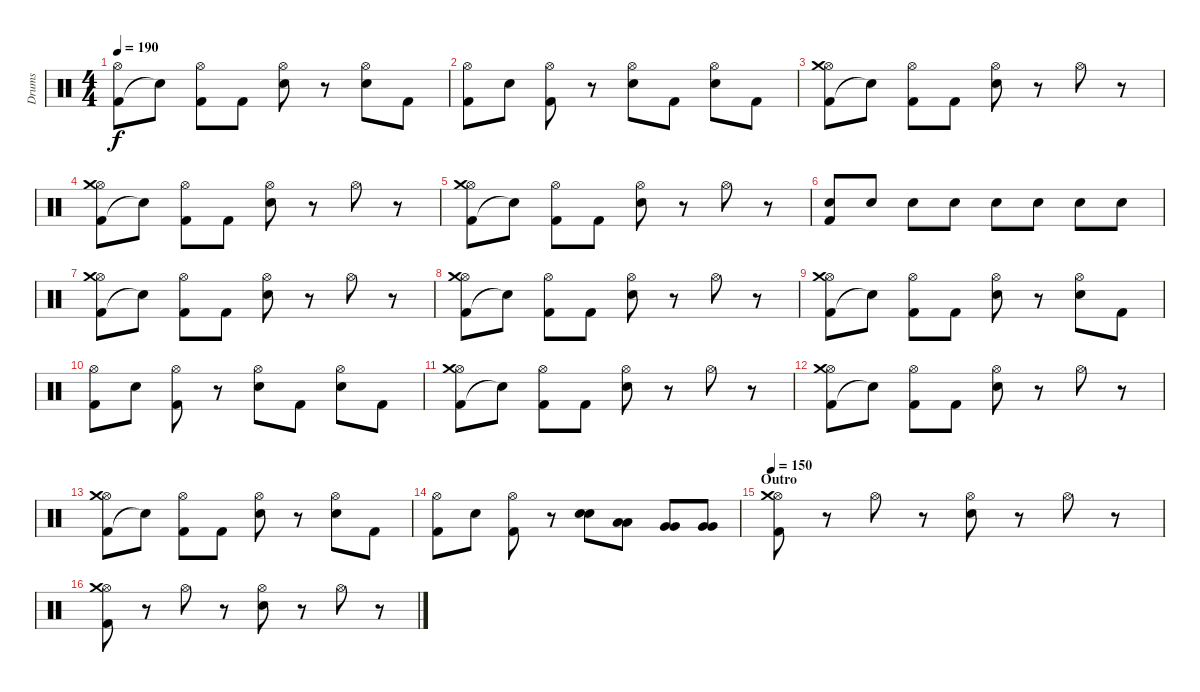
\track ("Drums" "Drums") {instrument percussion}
\staff {score}
\articulation defaults
\ts (4 4)
\tempo 190
\clef neutral
\ks c
("Kick (hit) 2" "Hi-Hat (open)").8{dy f} "Snare (hit)"{t}.8 ("Kick (hit) 2" "Hi-Hat (open)").8 "Kick (hit) 2".8 ("Electric Snare (hit)" "Hi-Hat (open)").8 r.8 ("Electric Snare (hit)" "Hi-Hat (open)").8 "Kick (hit) 2".8 |
("Kick (hit) 2" "Hi-Hat (open)").8 "Electric Snare (hit)".8 ("Kick (hit) 2" "Hi-Hat (open)").8 r.8 ("Electric Snare (hit)" "Hi-Hat (open)").8 "Kick (hit) 2".8 ("Electric Snare (hit)" "Hi-Hat (open)").8 "Kick (hit) 2".8 |
("Kick (hit) 2" "Hi-Hat (open)" "Crash medium (hit)").8 "Snare (hit)"{t}.8 ("Kick (hit) 2" "Hi-Hat (open)").8 "Kick (hit) 2".8 ("Electric Snare (hit)" "Hi-Hat (open)").8 r.8 "Hi-Hat (open)".8 r.8 |
("Kick (hit) 2" "Hi-Hat (open)" "Crash medium (hit)").8 "Snare (hit)"{t}.8 ("Kick (hit) 2" "Hi-Hat (open)").8 "Kick (hit) 2".8 ("Electric Snare (hit)" "Hi-Hat (open)").8 r.8 "Hi-Hat (open)".8 r.8 |
("Kick (hit) 2" "Hi-Hat (open)" "Crash medium (hit)").8 "Snare (hit)"{t}.8 ("Kick (hit) 2" "Hi-Hat (open)").8 "Kick (hit) 2".8 ("Electric Snare (hit)" "Hi-Hat (open)").8 r.8 "Hi-Hat (open)".8 r.8 |
("Kick (hit) 2" "Electric Snare (hit)").8 "Electric Snare (hit)".8 "Electric Snare (hit)".8 "Electric Snare (hit)".8 "Electric Snare (hit)".8 "Electric Snare (hit)".8 "Electric Snare (hit)".8 "Electric Snare (hit)".8 |
("Kick (hit) 2" "Hi-Hat (open)" "Crash medium (hit)").8 "Snare (hit)"{t}.8 ("Kick (hit) 2" "Hi-Hat (open)").8 "Kick (hit) 2".8 ("Electric Snare (hit)" "Hi-Hat (open)").8 r.8 "Hi-Hat (open)".8 r.8 |
("Kick (hit) 2" "Hi-Hat (open)" "Crash medium (hit)").8 "Snare (hit)"{t}.8 ("Kick (hit) 2" "Hi-Hat (open)").8 "Kick (hit) 2".8 ("Electric Snare (hit)" "Hi-Hat (open)").8 r.8 "Hi-Hat (open)".8 r.8 |
("Kick (hit) 2" "Hi-Hat (open)" "Crash medium (hit)").8 "Snare (hit)"{t}.8 ("Kick (hit) 2" "Hi-Hat (open)").8 "Kick (hit) 2".8 ("Electric Snare (hit)" "Hi-Hat (open)").8 r.8 ("Electric Snare (hit)" "Hi-Hat (open)").8 "Kick (hit) 2".8 |
("Kick (hit) 2" "Hi-Hat (open)").8 "Electric Snare (hit)".8 ("Kick (hit) 2" "Hi-Hat (open)").8 r.8 ("Electric Snare (hit)" "Hi-Hat (open)").8 "Kick (hit) 2".8 ("Electric Snare (hit)" "Hi-Hat (open)").8 "Kick (hit) 2".8 |
("Kick (hit) 2" "Hi-Hat (open)" "Crash medium (hit)").8 "Snare (hit)"{t}.8 ("Kick (hit) 2" "Hi-Hat (open)").8 "Kick (hit) 2".8 ("Electric Snare (hit)" "Hi-Hat (open)").8 r.8 "Hi-Hat (open)".8 r.8 |
("Kick (hit) 2" "Hi-Hat (open)" "Crash medium (hit)").8 "Snare (hit)"{t}.8 ("Kick (hit) 2" "Hi-Hat (open)").8 "Kick (hit) 2".8 ("Electric Snare (hit)" "Hi-Hat (open)").8 r.8 "Hi-Hat (open)".8 r.8 |
("Kick (hit) 2" "Hi-Hat (open)" "Crash medium (hit)").8 "Snare (hit)"{t}.8 ("Kick (hit) 2" "Hi-Hat (open)").8 "Kick (hit) 2".8 ("Electric Snare (hit)" "Hi-Hat (open)").8 r.8 ("Electric Snare (hit)" "Hi-Hat (open)").8 "Kick (hit) 2".8 |
("Kick (hit) 2" "Hi-Hat (open)").8 "Electric Snare (hit)".8 ("Kick (hit) 2" "Hi-Hat (open)").8 r.8 ("Electric Snare (hit)" "Electric Snare (hit)").8 ("Low Tom (hit)" "Low Tom (hit)").8 ("Very Low Tom (hit)" "Very Low Tom (hit)").8 ("Very Low Tom (hit)" "Very Low Tom (hit)").8 |
\section ("" "Outro")
\tempo 150
("Kick (hit) 2" "Hi-Hat (open)" "Crash medium (hit)").8 r.8 "Hi-Hat (open)".8 r.8 ("Electric Snare (hit)" "Hi-Hat (open)").8 r.8 "Hi-Hat (open)".8 r.8 |
("Kick (hit) 2" "Hi-Hat (open)" "Crash medium (hit)").8 r.8 "Hi-Hat (open)".8 r.8 ("Electric Snare (hit)" "Hi-Hat (open)").8 r.8 "Hi-Hat (open)".8 r.8
